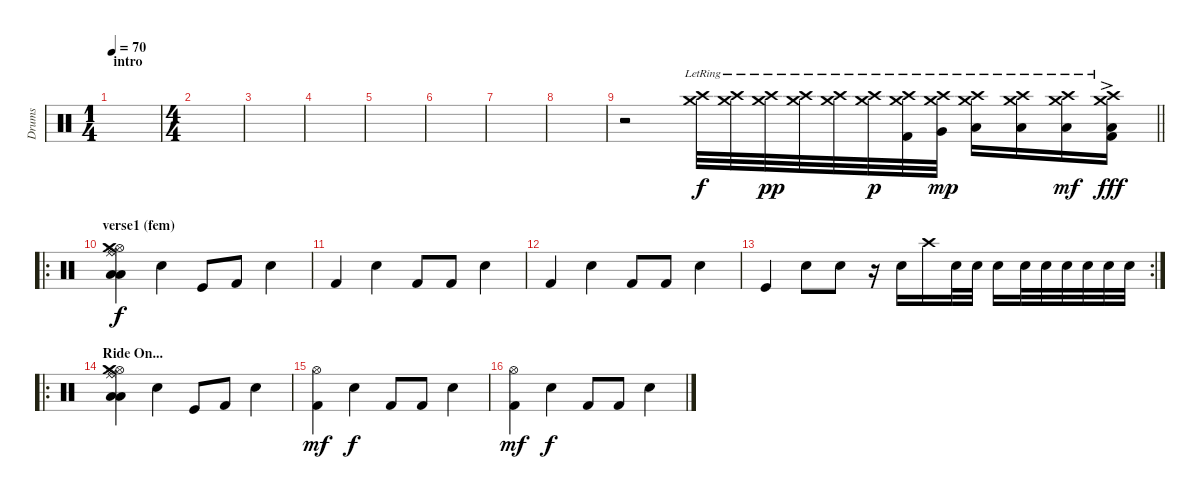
\track ("Drums" "Drums") {instrument percussion}
\staff {score}
\articulation defaults
\ts (1 4)
\section ("" "intro")
\tempo 70
\clef neutral
\ks c
|
\ts (4 4)
|
|
|
|
|
|
|
\barLineRight lightlight
r.2 ("Crash medium (hit)"{lr} "Crash high (hit)").32 ("Crash medium (hit)"{lr} "Crash high (hit)").32 ("Crash medium (hit)"{lr} "Crash high (hit)").32{dy pp} ("Crash medium (hit)"{lr} "Crash high (hit)").32 ("Crash medium (hit)"{lr} "Crash high (hit)").32 ("Crash medium (hit)"{lr} "Crash high (hit)").32{dy p} ("Crash medium (hit)"{lr} "Crash high (hit)" "Kick (hit) 2").32 ("Crash medium (hit)"{lr} "Crash high (hit)" "Very Low Tom (hit)").32{dy mp} ("Crash medium (hit)"{lr} "Crash high (hit)" "Low Tom (hit)").16 ("Crash medium (hit)"{lr} "Crash high (hit)" "Low Tom (hit)").16 ("Crash medium (hit)"{lr} "Crash high (hit)" "Low Tom (hit)").16{dy mf} ("Crash medium (hit)"{lr} "Crash high (hit)" "Low Tom (hit)"{ac} "Kick (hit) 2").16{dy fff} |
\ro
\section ("" "verse1 (fem)")
("Hi-Hat (open)" "Ride (middle)" "Ride (bell)" "Low Tom (hit)" "Crash medium (hit)" "Low Tom (hit)").4{dy f} "Snare (hit) 2".4 "Kick (hit)".8 "Kick (hit) 2".8 "Snare (hit) 2".4 |
"Kick (hit) 2".4 "Snare (hit) 2".4 "Kick (hit) 2".8 "Kick (hit) 2".8 "Snare (hit) 2".4 |
"Kick (hit) 2".4 "Snare (hit) 2".4 "Kick (hit) 2".8 "Kick (hit) 2".8 "Snare (hit) 2".4 |
\rc 2 "Kick (hit)".4 "Snare (hit) 2".8 "Snare (hit) 2".8
r.16 "Snare (hit) 2".16 "Crash high (hit)".16 "Snare (hit) 2".32 "Snare (hit) 2".32 "Snare (hit) 2".16 "Snare (hit) 2".32 "Snare (hit) 2".32 "Snare (hit) 2".32 "Snare (hit) 2".32 "Snare (hit) 2".32 "Snare (hit) 2".32 |
\ro
\section ("" "Ride On...")
("Hi-Hat (open)" "Ride (middle)" "Ride (bell)" "Low Tom (hit)" "Crash medium (hit)" "Low Tom (hit)").4 "Snare (hit) 2".4 "Kick (hit)".8 "Kick (hit) 2".8 "Snare (hit) 2".4 |
("Kick (hit) 2" "Hi-Hat (open)").4{dy mf} "Snare (hit) 2".4{dy f} "Kick (hit) 2".8 "Kick (hit) 2".8 "Snare (hit) 2".4 |
("Kick (hit) 2" "Hi-Hat (open)").4{dy mf} "Snare (hit) 2".4{dy f} "Kick (hit) 2".8 "Kick (hit) 2".8 "Snare (hit) 2".4
